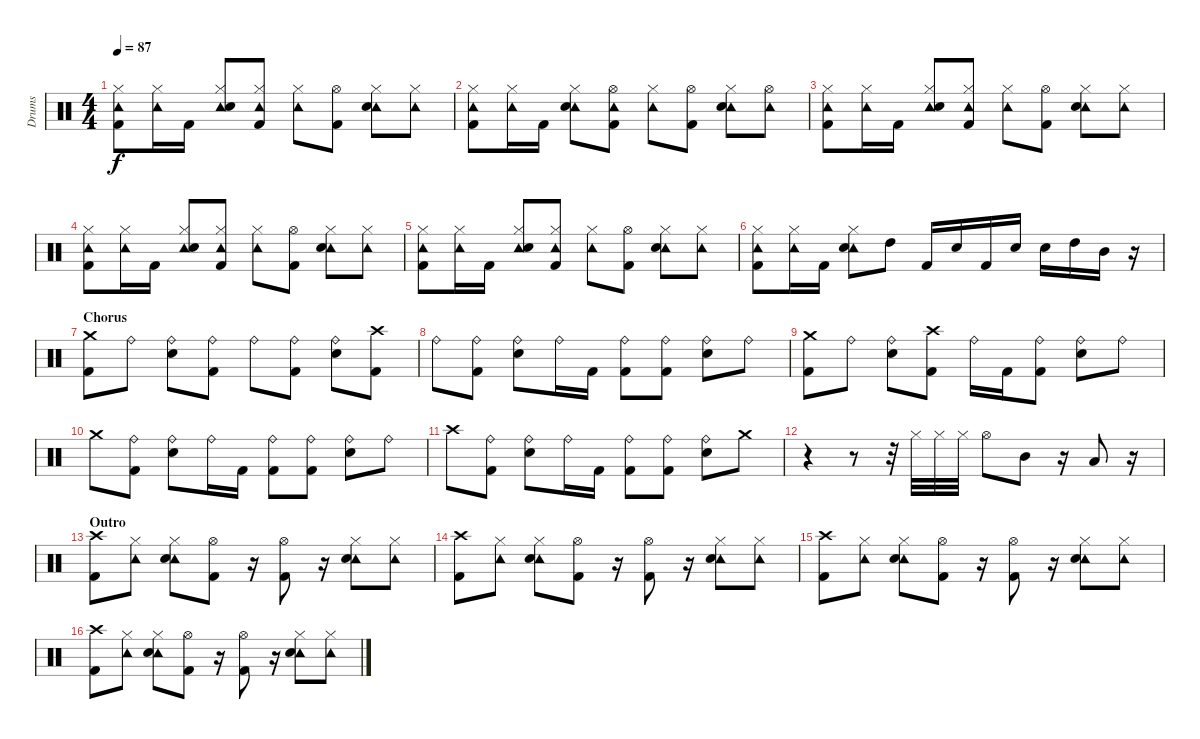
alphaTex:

\track ("Drums" "Drums") {instrument percussion}
\staff {score}
\articulation defaults
\ts (4 4)
\tempo 87
\clef neutral
\ks c
("Tambourine (hit)" "Hi-Hat (closed)" "Kick (hit) 2").8{dy f} ("Tambourine (hit)" "Hi-Hat (closed)").16 "Kick (hit) 2".16 ("Tambourine (hit)" "Hi-Hat (closed)" "Snare (hit) 2").8 ("Tambourine (hit)" "Hi-Hat (closed)" "Kick (hit) 2").8 ("Tambourine (hit)" "Hi-Hat (closed)").8 ("Hi-Hat (open)" "Kick (hit) 2").8 ("Tambourine (hit)" "Hi-Hat (closed)" "Snare (hit) 2").8 ("Tambourine (hit)" "Hi-Hat (closed)").8 |
("Tambourine (hit)" "Hi-Hat (closed)" "Kick (hit) 2").8 ("Tambourine (hit)" "Hi-Hat (closed)").16 "Kick (hit) 2".16 ("Tambourine (hit)" "Hi-Hat (closed)" "Snare (hit) 2").8 ("Tambourine (hit)" "Hi-Hat (open)" "Kick (hit) 2").8 ("Tambourine (hit)" "Hi-Hat (closed)").8 ("Hi-Hat (open)" "Kick (hit) 2").8 ("Tambourine (hit)" "Hi-Hat (closed)" "Snare (hit) 2").8 ("Tambourine (hit)" "Hi-Hat (open)").8 |
("Tambourine (hit)" "Hi-Hat (closed)" "Kick (hit) 2").8 ("Tambourine (hit)" "Hi-Hat (closed)").16 "Kick (hit) 2".16 ("Tambourine (hit)" "Hi-Hat (closed)" "Snare (hit) 2").8 ("Tambourine (hit)" "Hi-Hat (closed)" "Kick (hit) 2").8 ("Tambourine (hit)" "Hi-Hat (closed)").8 ("Hi-Hat (open)" "Kick (hit) 2").8 ("Tambourine (hit)" "Hi-Hat (closed)" "Snare (hit) 2").8 ("Tambourine (hit)" "Hi-Hat (closed)").8 |
("Tambourine (hit)" "Hi-Hat (closed)" "Kick (hit) 2").8 ("Tambourine (hit)" "Hi-Hat (closed)").16 "Kick (hit) 2".16 ("Tambourine (hit)" "Hi-Hat (closed)" "Snare (hit) 2").8 ("Tambourine (hit)" "Hi-Hat (closed)" "Kick (hit) 2").8 ("Tambourine (hit)" "Hi-Hat (closed)").8 ("Hi-Hat (open)" "Kick (hit) 2").8 ("Tambourine (hit)" "Hi-Hat (closed)" "Snare (hit) 2").8 ("Tambourine (hit)" "Hi-Hat (closed)").8 |
("Tambourine (hit)" "Hi-Hat (closed)" "Kick (hit) 2").8 ("Tambourine (hit)" "Hi-Hat (closed)").16 "Kick (hit) 2".16 ("Tambourine (hit)" "Hi-Hat (closed)" "Snare (hit) 2").8 ("Tambourine (hit)" "Hi-Hat (closed)" "Kick (hit) 2").8 ("Tambourine (hit)" "Hi-Hat (closed)").8 ("Hi-Hat (open)" "Kick (hit) 2").8 ("Tambourine (hit)" "Hi-Hat (closed)" "Snare (hit) 2").8 ("Tambourine (hit)" "Hi-Hat (closed)").8 |
\section ("" "")
("Tambourine (hit)" "Hi-Hat (closed)" "Kick (hit) 2").8 ("Tambourine (hit)" "Hi-Hat (closed)").16 "Kick (hit) 2".16 ("Tambourine (hit)" "Hi-Hat (closed)" "Snare (hit) 2").8 "High Tom (hit)".8 "Kick (hit) 2".16 "Snare (hit) 2".16 "Kick (hit) 2".16 "Snare (hit) 2".16 "Snare (hit) 2".16 "High Tom (hit)".16 "Mid Tom (hit)".16 r.16 |
\section ("" "Chorus")
("Crash medium (hit)" "Kick (hit) 2").8 "Ride (bell)".8 ("Ride (bell)" "Snare (hit) 2").8 ("Ride (bell)" "Kick (hit) 2").8 "Ride (bell)".8 ("Ride (bell)" "Kick (hit) 2").8 ("Ride (bell)" "Snare (hit) 2").8 ("Crash high (hit)" "Kick (hit) 2").8 |
"Ride (bell)".8 ("Ride (bell)" "Kick (hit) 2").8 ("Ride (bell)" "Snare (hit) 2").8 "Ride (bell)".16 "Kick (hit) 2".16 ("Ride (bell)" "Kick (hit) 2").8 ("Ride (bell)" "Kick (hit) 2").8 ("Ride (bell)" "Snare (hit) 2").8 "Ride (bell)".8 |
("Crash medium (hit)" "Kick (hit) 2").8 "Ride (bell)".8 ("Ride (bell)" "Snare (hit) 2").8 ("Crash high (hit)" "Kick (hit) 2").8 "Ride (bell)".16 "Kick (hit) 2".16 ("Ride (bell)" "Kick (hit) 2").8 ("Ride (bell)" "Snare (hit) 2").8 "Ride (bell)".8 |
"Crash medium (hit)".8 ("Ride (bell)" "Kick (hit) 2").8 ("Ride (bell)" "Snare (hit) 2").8 "Ride (bell)".16 "Kick (hit) 2".16 ("Ride (bell)" "Kick (hit) 2").8 ("Ride (bell)" "Kick (hit) 2").8 ("Ride (bell)" "Snare (hit) 2").8 "Ride (bell)".8 |
"Crash high (hit)".8 ("Ride (bell)" "Kick (hit) 2").8 ("Ride (bell)" "Snare (hit) 2").8 "Ride (bell)".16 "Kick (hit) 2".16 ("Ride (bell)" "Kick (hit) 2").8 ("Ride (bell)" "Kick (hit) 2").8 ("Ride (bell)" "Snare (hit) 2").8 "Crash medium (hit)".8 |
r.4 r.8 r.32 "Hi-Hat (closed)".32 "Hi-Hat (closed)".32 "Hi-Hat (closed)".32 "Hi-Hat (open)".8 "Mid Tom (hit)".8 r.16 "Low Floor Tom (hit)".8 r.16 |
\section ("" "Outro")
("Crash high (hit)" "Kick (hit) 2").8 ("Tambourine (hit)" "Hi-Hat (closed)").8 ("Tambourine (hit)" "Hi-Hat (closed)" "Snare (hit) 2").8 ("Hi-Hat (open)" "Kick (hit) 2").8 r.16 ("Hi-Hat (open)" "Kick (hit) 2").8 r.16 ("Tambourine (hit)" "Hi-Hat (closed)" "Snare (hit) 2").8 ("Tambourine (hit)" "Hi-Hat (closed)").8 |
("Crash high (hit)" "Kick (hit) 2").8{volume 12} ("Tambourine (hit)" "Hi-Hat (closed)").8 ("Tambourine (hit)" "Hi-Hat (closed)" "Snare (hit) 2").8 ("Hi-Hat (open)" "Kick (hit) 2").8 r.16 ("Hi-Hat (open)" "Kick (hit) 2").8 r.16 ("Tambourine (hit)" "Hi-Hat (closed)" "Snare (hit) 2").8 ("Tambourine (hit)" "Hi-Hat (closed)").8 |
("Crash high (hit)" "Kick (hit) 2").8 ("Tambourine (hit)" "Hi-Hat (closed)").8 ("Tambourine (hit)" "Hi-Hat (closed)" "Snare (hit) 2").8 ("Hi-Hat (open)" "Kick (hit) 2").8 r.16 ("Hi-Hat (open)" "Kick (hit) 2").8 r.16 ("Tambourine (hit)" "Hi-Hat (closed)" "Snare (hit) 2").8 ("Tambourine (hit)" "Hi-Hat (closed)").8 |
("Crash high (hit)" "Kick (hit) 2").8{volume 10} ("Tambourine (hit)" "Hi-Hat (closed)").8 ("Tambourine (hit)" "Hi-Hat (closed)" "Snare (hit) 2").8 ("Hi-Hat (open)" "Kick (hit) 2").8 r.16 ("Hi-Hat (open)" "Kick (hit) 2").8 r.16 ("Tambourine (hit)" "Hi-Hat (closed)" "Snare (hit) 2").8 ("Tambourine (hit)" "Hi-Hat (closed)").8
